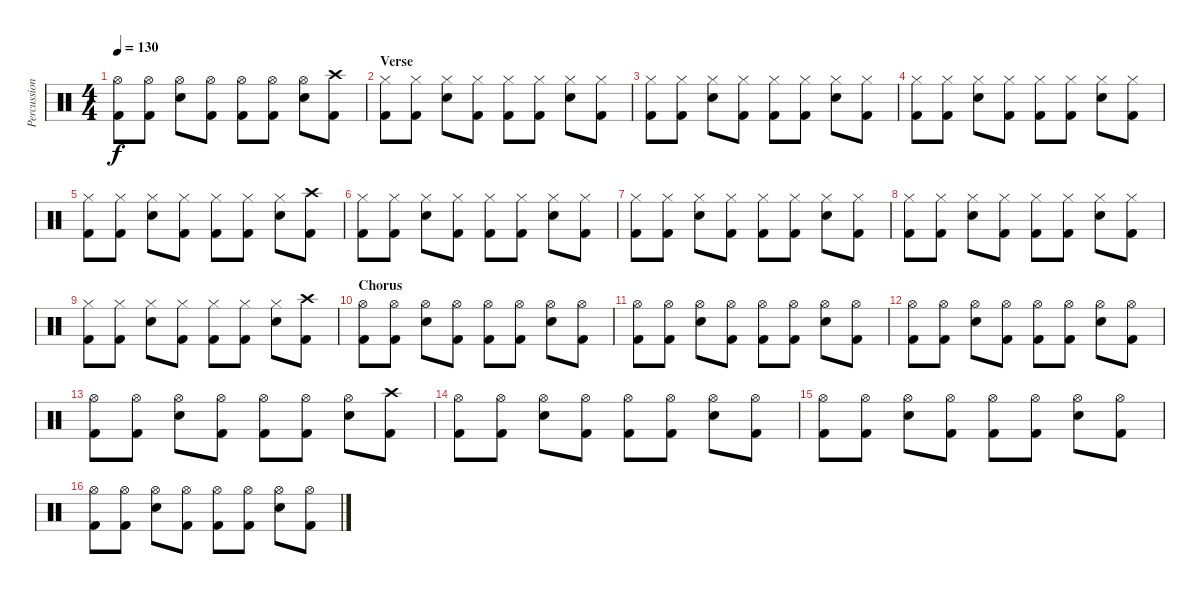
\track ("Percussion" "Percussion") {instrument percussion}
\staff {score}
\articulation defaults
\ts (4 4)
\tempo 130
\clef neutral
\ks c
("Hi-Hat (open)" "Kick (hit) 2").8{dy f} ("Hi-Hat (open)" "Kick (hit) 2").8 ("Hi-Hat (open)" "Electric Snare (hit)").8 ("Hi-Hat (open)" "Kick (hit) 2").8 ("Hi-Hat (open)" "Kick (hit) 2").8 ("Hi-Hat (open)" "Kick (hit) 2").8 ("Hi-Hat (open)" "Electric Snare (hit)").8 ("Crash high (hit)" "Kick (hit) 2").8 |
\section ("" "Verse")
("Hi-Hat (closed)" "Kick (hit) 2").8 ("Hi-Hat (closed)" "Kick (hit) 2").8 ("Hi-Hat (closed)" "Electric Snare (hit)").8 ("Hi-Hat (closed)" "Kick (hit) 2").8 ("Hi-Hat (closed)" "Kick (hit) 2").8 ("Hi-Hat (closed)" "Kick (hit) 2").8 ("Hi-Hat (closed)" "Electric Snare (hit)").8 ("Hi-Hat (closed)" "Kick (hit) 2").8 |
("Hi-Hat (closed)" "Kick (hit) 2").8 ("Hi-Hat (closed)" "Kick (hit) 2").8 ("Hi-Hat (closed)" "Electric Snare (hit)").8 ("Hi-Hat (closed)" "Kick (hit) 2").8 ("Hi-Hat (closed)" "Kick (hit) 2").8 ("Hi-Hat (closed)" "Kick (hit) 2").8 ("Hi-Hat (closed)" "Electric Snare (hit)").8 ("Hi-Hat (closed)" "Kick (hit) 2").8 |
("Hi-Hat (closed)" "Kick (hit) 2").8 ("Hi-Hat (closed)" "Kick (hit) 2").8 ("Hi-Hat (closed)" "Electric Snare (hit)").8 ("Hi-Hat (closed)" "Kick (hit) 2").8 ("Hi-Hat (closed)" "Kick (hit) 2").8 ("Hi-Hat (closed)" "Kick (hit) 2").8 ("Hi-Hat (closed)" "Electric Snare (hit)").8 ("Hi-Hat (closed)" "Kick (hit) 2").8 |
("Hi-Hat (closed)" "Kick (hit) 2").8 ("Hi-Hat (closed)" "Kick (hit) 2").8 ("Hi-Hat (closed)" "Electric Snare (hit)").8 ("Hi-Hat (closed)" "Kick (hit) 2").8 ("Hi-Hat (closed)" "Kick (hit) 2").8 ("Hi-Hat (closed)" "Kick (hit) 2").8 ("Hi-Hat (closed)" "Electric Snare (hit)").8 ("Crash high (hit)" "Kick (hit) 2").8 |
("Hi-Hat (closed)" "Kick (hit) 2").8 ("Hi-Hat (closed)" "Kick (hit) 2").8 ("Hi-Hat (closed)" "Electric Snare (hit)").8 ("Hi-Hat (closed)" "Kick (hit) 2").8 ("Hi-Hat (closed)" "Kick (hit) 2").8 ("Hi-Hat (closed)" "Kick (hit) 2").8 ("Hi-Hat (closed)" "Electric Snare (hit)").8 ("Hi-Hat (closed)" "Kick (hit) 2").8 |
("Hi-Hat (closed)" "Kick (hit) 2").8 ("Hi-Hat (closed)" "Kick (hit) 2").8 ("Hi-Hat (closed)" "Electric Snare (hit)").8 ("Hi-Hat (closed)" "Kick (hit) 2").8 ("Hi-Hat (closed)" "Kick (hit) 2").8 ("Hi-Hat (closed)" "Kick (hit) 2").8 ("Hi-Hat (closed)" "Electric Snare (hit)").8 ("Hi-Hat (closed)" "Kick (hit) 2").8 |
("Hi-Hat (closed)" "Kick (hit) 2").8 ("Hi-Hat (closed)" "Kick (hit) 2").8 ("Hi-Hat (closed)" "Electric Snare (hit)").8 ("Hi-Hat (closed)" "Kick (hit) 2").8 ("Hi-Hat (closed)" "Kick (hit) 2").8 ("Hi-Hat (closed)" "Kick (hit) 2").8 ("Hi-Hat (closed)" "Electric Snare (hit)").8 ("Hi-Hat (closed)" "Kick (hit) 2").8 |
("Hi-Hat (closed)" "Kick (hit) 2").8 ("Hi-Hat (closed)" "Kick (hit) 2").8 ("Hi-Hat (closed)" "Electric Snare (hit)").8 ("Hi-Hat (closed)" "Kick (hit) 2").8 ("Hi-Hat (closed)" "Kick (hit) 2").8 ("Hi-Hat (closed)" "Kick (hit) 2").8 ("Hi-Hat (closed)" "Electric Snare (hit)").8 ("Crash high (hit)" "Kick (hit) 2").8 |
\section ("" "Chorus")
("Hi-Hat (open)" "Kick (hit) 2").8 ("Hi-Hat (open)" "Kick (hit) 2").8 ("Hi-Hat (open)" "Electric Snare (hit)").8 ("Hi-Hat (open)" "Kick (hit) 2").8 ("Hi-Hat (open)" "Kick (hit) 2").8 ("Hi-Hat (open)" "Kick (hit) 2").8 ("Hi-Hat (open)" "Electric Snare (hit)").8 ("Hi-Hat (open)" "Kick (hit) 2").8 |
("Hi-Hat (open)" "Kick (hit) 2").8 ("Hi-Hat (open)" "Kick (hit) 2").8 ("Hi-Hat (open)" "Electric Snare (hit)").8 ("Hi-Hat (open)" "Kick (hit) 2").8 ("Hi-Hat (open)" "Kick (hit) 2").8 ("Hi-Hat (open)" "Kick (hit) 2").8 ("Hi-Hat (open)" "Electric Snare (hit)").8 ("Hi-Hat (open)" "Kick (hit) 2").8 |
("Hi-Hat (open)" "Kick (hit) 2").8 ("Hi-Hat (open)" "Kick (hit) 2").8 ("Hi-Hat (open)" "Electric Snare (hit)").8 ("Hi-Hat (open)" "Kick (hit) 2").8 ("Hi-Hat (open)" "Kick (hit) 2").8 ("Hi-Hat (open)" "Kick (hit) 2").8 ("Hi-Hat (open)" "Electric Snare (hit)").8 ("Hi-Hat (open)" "Kick (hit) 2").8 |
("Hi-Hat (open)" "Kick (hit) 2").8 ("Hi-Hat (open)" "Kick (hit) 2").8 ("Hi-Hat (open)" "Electric Snare (hit)").8 ("Hi-Hat (open)" "Kick (hit) 2").8 ("Hi-Hat (open)" "Kick (hit) 2").8 ("Hi-Hat (open)" "Kick (hit) 2").8 ("Hi-Hat (open)" "Electric Snare (hit)").8 ("Crash high (hit)" "Kick (hit) 2").8 |
("Hi-Hat (open)" "Kick (hit) 2").8 ("Hi-Hat (open)" "Kick (hit) 2").8 ("Hi-Hat (open)" "Electric Snare (hit)").8 ("Hi-Hat (open)" "Kick (hit) 2").8 ("Hi-Hat (open)" "Kick (hit) 2").8 ("Hi-Hat (open)" "Kick (hit) 2").8 ("Hi-Hat (open)" "Electric Snare (hit)").8 ("Hi-Hat (open)" "Kick (hit) 2").8 |
("Hi-Hat (open)" "Kick (hit) 2").8 ("Hi-Hat (open)" "Kick (hit) 2").8 ("Hi-Hat (open)" "Electric Snare (hit)").8 ("Hi-Hat (open)" "Kick (hit) 2").8 ("Hi-Hat (open)" "Kick (hit) 2").8 ("Hi-Hat (open)" "Kick (hit) 2").8 ("Hi-Hat (open)" "Electric Snare (hit)").8 ("Hi-Hat (open)" "Kick (hit) 2").8 |
("Hi-Hat (open)" "Kick (hit) 2").8 ("Hi-Hat (open)" "Kick (hit) 2").8 ("Hi-Hat (open)" "Electric Snare (hit)").8 ("Hi-Hat (open)" "Kick (hit) 2").8 ("Hi-Hat (open)" "Kick (hit) 2").8 ("Hi-Hat (open)" "Kick (hit) 2").8 ("Hi-Hat (open)" "Electric Snare (hit)").8 ("Hi-Hat (open)" "Kick (hit) 2").8
